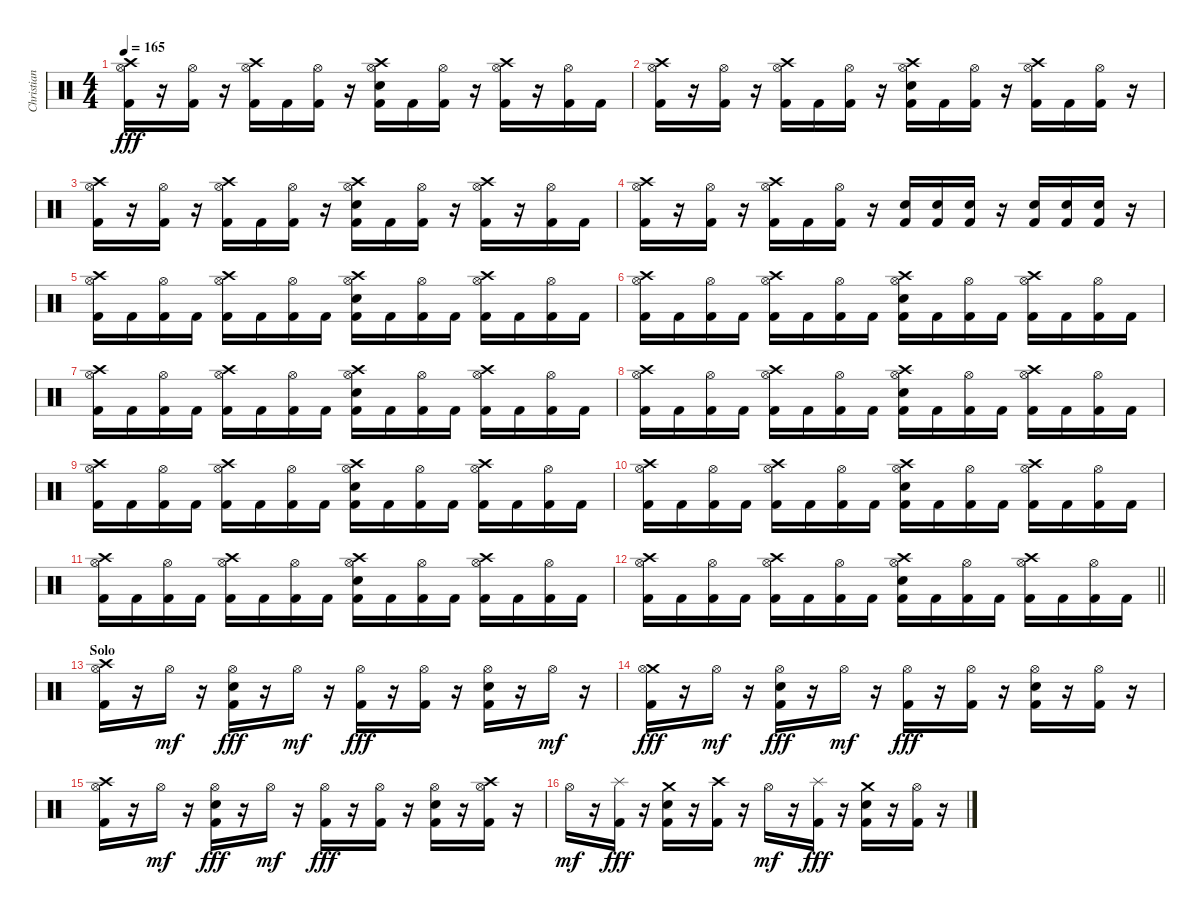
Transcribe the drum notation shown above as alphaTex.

\track ("Christian Coma Mora (CC)" "Christian ") {instrument percussion}
\staff {score}
\articulation defaults
\ts (4 4)
\tempo 165
\clef neutral
\ks c
("Crash high (hit)" "Hi-Hat (open)" "Kick (hit) 2").16{dy fff} r.16 ("Hi-Hat (open)" "Kick (hit) 2").16 r.16 ("Crash high (hit)" "Hi-Hat (open)" "Kick (hit) 2").16 "Kick (hit) 2".16 ("Hi-Hat (open)" "Kick (hit) 2").16 r.16 ("Crash high (hit)" "Hi-Hat (open)" "Snare (hit) 2" "Kick (hit) 2").16 "Kick (hit) 2".16 ("Hi-Hat (open)" "Kick (hit) 2").16 r.16 ("Crash high (hit)" "Hi-Hat (open)" "Kick (hit) 2").16 r.16 ("Hi-Hat (open)" "Kick (hit) 2").16 "Kick (hit) 2".16 |
("Crash high (hit)" "Hi-Hat (open)" "Kick (hit) 2").16 r.16 ("Hi-Hat (open)" "Kick (hit) 2").16 r.16 ("Crash high (hit)" "Hi-Hat (open)" "Kick (hit) 2").16 "Kick (hit) 2".16 ("Hi-Hat (open)" "Kick (hit) 2").16 r.16 ("Crash high (hit)" "Hi-Hat (open)" "Snare (hit) 2" "Kick (hit) 2").16 "Kick (hit) 2".16 ("Hi-Hat (open)" "Kick (hit) 2").16 r.16 ("Crash high (hit)" "Hi-Hat (open)" "Kick (hit) 2").16 "Kick (hit) 2".16 ("Hi-Hat (open)" "Kick (hit) 2").16 r.16 |
("Crash high (hit)" "Hi-Hat (open)" "Kick (hit) 2").16 r.16 ("Hi-Hat (open)" "Kick (hit) 2").16 r.16 ("Crash high (hit)" "Hi-Hat (open)" "Kick (hit) 2").16 "Kick (hit) 2".16 ("Hi-Hat (open)" "Kick (hit) 2").16 r.16 ("Crash high (hit)" "Hi-Hat (open)" "Snare (hit) 2" "Kick (hit) 2").16 "Kick (hit) 2".16 ("Hi-Hat (open)" "Kick (hit) 2").16 r.16 ("Crash high (hit)" "Hi-Hat (open)" "Kick (hit) 2").16 r.16 ("Hi-Hat (open)" "Kick (hit) 2").16 "Kick (hit) 2".16 |
("Crash high (hit)" "Hi-Hat (open)" "Kick (hit) 2").16 r.16 ("Hi-Hat (open)" "Kick (hit) 2").16 r.16 ("Crash high (hit)" "Hi-Hat (open)" "Kick (hit) 2").16 "Kick (hit) 2".16 ("Hi-Hat (open)" "Kick (hit) 2").16 r.16 ("Snare (hit) 2" "Kick (hit) 2").16 ("Snare (hit) 2" "Kick (hit) 2").16 ("Snare (hit) 2" "Kick (hit) 2").16 r.16 ("Snare (hit) 2" "Kick (hit) 2").16 ("Snare (hit) 2" "Kick (hit) 2").16 ("Snare (hit) 2" "Kick (hit) 2").16 r.16 |
("Crash high (hit)" "Hi-Hat (open)" "Kick (hit) 2").16 "Kick (hit) 2".16 ("Hi-Hat (open)" "Kick (hit) 2").16 "Kick (hit) 2".16 ("Crash high (hit)" "Hi-Hat (open)" "Kick (hit) 2").16 "Kick (hit) 2".16 ("Hi-Hat (open)" "Kick (hit) 2").16 "Kick (hit) 2".16 ("Crash high (hit)" "Hi-Hat (open)" "Snare (hit) 2" "Kick (hit) 2").16 "Kick (hit) 2".16 ("Hi-Hat (open)" "Kick (hit) 2").16 "Kick (hit) 2".16 ("Crash high (hit)" "Hi-Hat (open)" "Kick (hit) 2").16 "Kick (hit) 2".16 ("Hi-Hat (open)" "Kick (hit) 2").16 "Kick (hit) 2".16 |
("Crash high (hit)" "Hi-Hat (open)" "Kick (hit) 2").16 "Kick (hit) 2".16 ("Hi-Hat (open)" "Kick (hit) 2").16 "Kick (hit) 2".16 ("Crash high (hit)" "Hi-Hat (open)" "Kick (hit) 2").16 "Kick (hit) 2".16 ("Hi-Hat (open)" "Kick (hit) 2").16 "Kick (hit) 2".16 ("Crash high (hit)" "Hi-Hat (open)" "Snare (hit) 2" "Kick (hit) 2").16 "Kick (hit) 2".16 ("Hi-Hat (open)" "Kick (hit) 2").16 "Kick (hit) 2".16 ("Crash high (hit)" "Hi-Hat (open)" "Kick (hit) 2").16 "Kick (hit) 2".16 ("Hi-Hat (open)" "Kick (hit) 2").16 "Kick (hit) 2".16 |
("Crash high (hit)" "Hi-Hat (open)" "Kick (hit) 2").16 "Kick (hit) 2".16 ("Hi-Hat (open)" "Kick (hit) 2").16 "Kick (hit) 2".16 ("Crash high (hit)" "Hi-Hat (open)" "Kick (hit) 2").16 "Kick (hit) 2".16 ("Hi-Hat (open)" "Kick (hit) 2").16 "Kick (hit) 2".16 ("Crash high (hit)" "Hi-Hat (open)" "Snare (hit) 2" "Kick (hit) 2").16 "Kick (hit) 2".16 ("Hi-Hat (open)" "Kick (hit) 2").16 "Kick (hit) 2".16 ("Crash high (hit)" "Hi-Hat (open)" "Kick (hit) 2").16 "Kick (hit) 2".16 ("Hi-Hat (open)" "Kick (hit) 2").16 "Kick (hit) 2".16 |
("Crash high (hit)" "Hi-Hat (open)" "Kick (hit) 2").16 "Kick (hit) 2".16 ("Hi-Hat (open)" "Kick (hit) 2").16 "Kick (hit) 2".16 ("Crash high (hit)" "Hi-Hat (open)" "Kick (hit) 2").16 "Kick (hit) 2".16 ("Hi-Hat (open)" "Kick (hit) 2").16 "Kick (hit) 2".16 ("Crash high (hit)" "Hi-Hat (open)" "Snare (hit) 2" "Kick (hit) 2").16 "Kick (hit) 2".16 ("Hi-Hat (open)" "Kick (hit) 2").16 "Kick (hit) 2".16 ("Crash high (hit)" "Hi-Hat (open)" "Kick (hit) 2").16 "Kick (hit) 2".16 ("Hi-Hat (open)" "Kick (hit) 2").16 "Kick (hit) 2".16 |
("Crash high (hit)" "Hi-Hat (open)" "Kick (hit) 2").16 "Kick (hit) 2".16 ("Hi-Hat (open)" "Kick (hit) 2").16 "Kick (hit) 2".16 ("Crash high (hit)" "Hi-Hat (open)" "Kick (hit) 2").16 "Kick (hit) 2".16 ("Hi-Hat (open)" "Kick (hit) 2").16 "Kick (hit) 2".16 ("Crash high (hit)" "Hi-Hat (open)" "Snare (hit) 2" "Kick (hit) 2").16 "Kick (hit) 2".16 ("Hi-Hat (open)" "Kick (hit) 2").16 "Kick (hit) 2".16 ("Crash high (hit)" "Hi-Hat (open)" "Kick (hit) 2").16 "Kick (hit) 2".16 ("Hi-Hat (open)" "Kick (hit) 2").16 "Kick (hit) 2".16 |
("Crash high (hit)" "Hi-Hat (open)" "Kick (hit) 2").16 "Kick (hit) 2".16 ("Hi-Hat (open)" "Kick (hit) 2").16 "Kick (hit) 2".16 ("Crash high (hit)" "Hi-Hat (open)" "Kick (hit) 2").16 "Kick (hit) 2".16 ("Hi-Hat (open)" "Kick (hit) 2").16 "Kick (hit) 2".16 ("Crash high (hit)" "Hi-Hat (open)" "Snare (hit) 2" "Kick (hit) 2").16 "Kick (hit) 2".16 ("Hi-Hat (open)" "Kick (hit) 2").16 "Kick (hit) 2".16 ("Crash high (hit)" "Hi-Hat (open)" "Kick (hit) 2").16 "Kick (hit) 2".16 ("Hi-Hat (open)" "Kick (hit) 2").16 "Kick (hit) 2".16 |
("Crash high (hit)" "Hi-Hat (open)" "Kick (hit) 2").16 "Kick (hit) 2".16 ("Hi-Hat (open)" "Kick (hit) 2").16 "Kick (hit) 2".16 ("Crash high (hit)" "Hi-Hat (open)" "Kick (hit) 2").16 "Kick (hit) 2".16 ("Hi-Hat (open)" "Kick (hit) 2").16 "Kick (hit) 2".16 ("Crash high (hit)" "Hi-Hat (open)" "Snare (hit) 2" "Kick (hit) 2").16 "Kick (hit) 2".16 ("Hi-Hat (open)" "Kick (hit) 2").16 "Kick (hit) 2".16 ("Crash high (hit)" "Hi-Hat (open)" "Kick (hit) 2").16 "Kick (hit) 2".16 ("Hi-Hat (open)" "Kick (hit) 2").16 "Kick (hit) 2".16 |
\barLineRight lightlight
("Crash high (hit)" "Hi-Hat (open)" "Kick (hit) 2").16 "Kick (hit) 2".16 ("Hi-Hat (open)" "Kick (hit) 2").16 "Kick (hit) 2".16 ("Crash high (hit)" "Hi-Hat (open)" "Kick (hit) 2").16 "Kick (hit) 2".16 ("Hi-Hat (open)" "Kick (hit) 2").16 "Kick (hit) 2".16 ("Crash high (hit)" "Hi-Hat (open)" "Snare (hit) 2" "Kick (hit) 2").16 "Kick (hit) 2".16 ("Hi-Hat (open)" "Kick (hit) 2").16 "Kick (hit) 2".16 ("Crash high (hit)" "Hi-Hat (open)" "Kick (hit) 2").16 "Kick (hit) 2".16 ("Hi-Hat (open)" "Kick (hit) 2").16 "Kick (hit) 2".16 |
\section ("" "Solo")
("Crash high (hit)" "Hi-Hat (open)" "Kick (hit) 2").16 r.16 "Hi-Hat (open)".16{dy mf} r.16 ("Hi-Hat (open)" "Snare (hit) 2" "Kick (hit) 2").16{dy fff} r.16 "Hi-Hat (open)".16{dy mf} r.16 ("Hi-Hat (open)" "Kick (hit) 2").16{dy fff} r.16 ("Hi-Hat (open)" "Kick (hit) 2").16 r.16 ("Hi-Hat (open)" "Snare (hit) 2" "Kick (hit) 2").16 r.16 "Hi-Hat (open)".16{dy mf} r.16 |
("Crash medium (hit)" "Hi-Hat (open)" "Kick (hit) 2").16{dy fff} r.16 "Hi-Hat (open)".16{dy mf} r.16 ("Hi-Hat (open)" "Snare (hit) 2" "Kick (hit) 2").16{dy fff} r.16 "Hi-Hat (open)".16{dy mf} r.16 ("Hi-Hat (open)" "Kick (hit) 2").16{dy fff} r.16 ("Hi-Hat (open)" "Kick (hit) 2").16 r.16 ("Hi-Hat (open)" "Snare (hit) 2" "Kick (hit) 2").16 r.16 ("Hi-Hat (open)" "Kick (hit) 2").16 r.16 |
("Crash high (hit)" "Hi-Hat (open)" "Kick (hit) 2").16 r.16 "Hi-Hat (open)".16{dy mf} r.16 ("Hi-Hat (open)" "Snare (hit) 2" "Kick (hit) 2").16{dy fff} r.16 "Hi-Hat (open)".16{dy mf} r.16 ("Hi-Hat (open)" "Kick (hit) 2").16{dy fff} r.16 ("Hi-Hat (open)" "Kick (hit) 2").16 r.16 ("Hi-Hat (open)" "Snare (hit) 2" "Kick (hit) 2").16 r.16 ("Crash high (hit)" "Hi-Hat (open)" "Kick (hit) 2").16 r.16 |
"Hi-Hat (open)".16{dy mf} r.16 ("Splash (hit)" "Kick (hit) 2").16{dy fff} r.16 ("Crash medium (hit)" "Snare (hit) 2" "Kick (hit) 2").16 r.16 ("Crash high (hit)" "Kick (hit) 2").16 r.16 "Hi-Hat (open)".16{dy mf} r.16 ("Splash (hit)" "Kick (hit) 2").16{dy fff} r.16 ("Crash medium (hit)" "Snare (hit) 2" "Kick (hit) 2").16 r.16 ("Hi-Hat (open)" "Kick (hit) 2").16 r.16
